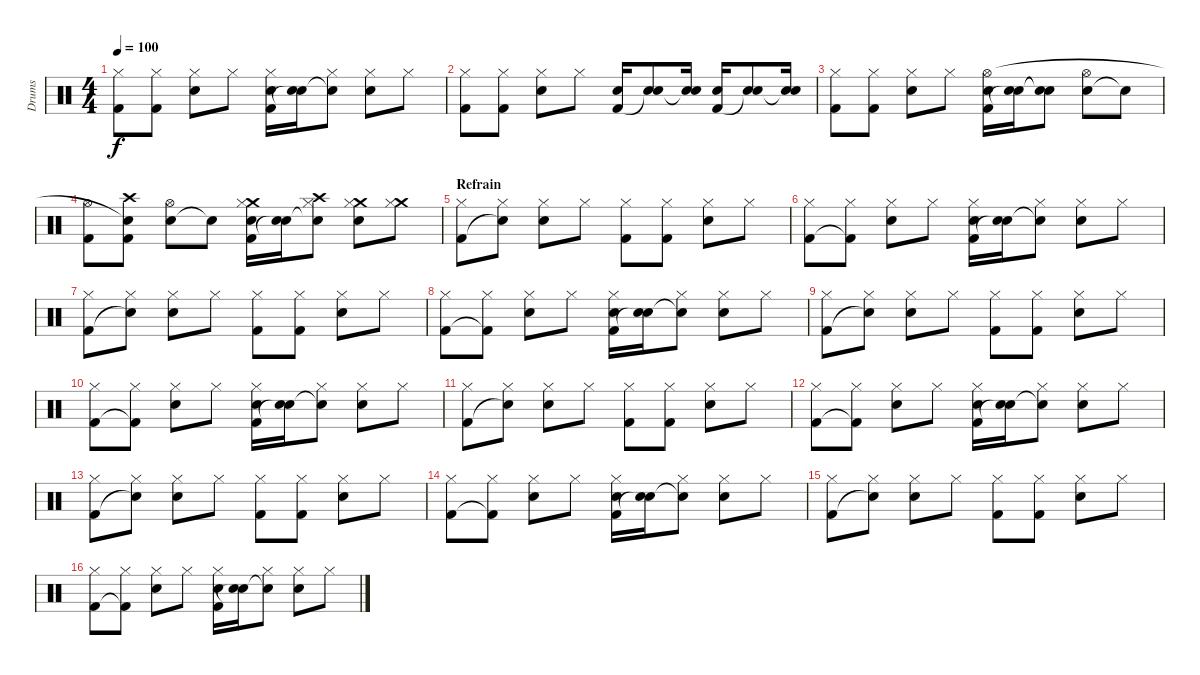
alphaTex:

\track ("Drums" "Drums") {instrument percussion}
\staff {score}
\articulation defaults
\ts (4 4)
\tempo 100
\clef neutral
\ks c
("Kick (hit) 2" "Hi-Hat (closed)").8{dy f} ("Kick (hit) 2" "Hi-Hat (closed)").8 ("Snare (hit) 2" "Hi-Hat (closed)").8 "Hi-Hat (closed)".8 ("Kick (hit) 2" "Snare (hit) 2" "Hi-Hat (closed)").16 ("Snare (hit)"{t} "Snare (hit) 2").16 ("Snare (hit)"{t} "Hi-Hat (closed)").8 ("Snare (hit) 2" "Hi-Hat (closed)").8 "Hi-Hat (closed)".8 |
("Kick (hit) 2" "Hi-Hat (closed)").8 ("Kick (hit) 2" "Hi-Hat (closed)").8 ("Snare (hit) 2" "Hi-Hat (closed)").8 "Hi-Hat (closed)".8 ("Kick (hit) 2" "Snare (hit) 2").16 ("Snare (hit)"{t} "Snare (hit) 2").8 ("Snare (hit)"{t} "Snare (hit) 2").16 ("Kick (hit) 2" "Snare (hit) 2").16 ("Snare (hit)"{t} "Snare (hit) 2").8 ("Snare (hit)"{t} "Snare (hit) 2").16 |
("Kick (hit) 2" "Hi-Hat (closed)").8 ("Kick (hit) 2" "Hi-Hat (closed)").8 ("Snare (hit) 2" "Hi-Hat (closed)").8 "Hi-Hat (closed)".8 ("Kick (hit) 2" "Snare (hit) 2" "Hi-Hat (open)").16 ("Snare (hit)"{t} "Snare (hit) 2").16 ("Snare (hit)"{t} "Snare (hit)"{t}).8 ("Snare (hit) 2" "Hi-Hat (open)").8 "Snare (hit)"{t}.8 |
("Kick (hit) 2" "Hi-Hat (open)").8 ("Kick (hit) 2" "Crash high (hit)" "Snare (hit)"{t}).8 ("Snare (hit) 2" "Hi-Hat (open)").8 "Snare (hit)"{t}.8 ("Kick (hit) 2" "Crash medium (hit)" "Snare (hit) 2" "Hi-Hat (closed)").16 ("Snare (hit)"{t} "Snare (hit) 2").16 ("Snare (hit)"{t} "Crash high (hit)" "Hi-Hat (closed)").8 ("Crash medium (hit)" "Snare (hit) 2" "Hi-Hat (closed)").8 ("Crash medium (hit)" "Hi-Hat (closed)").8 |
\section ("" "Refrain")
("Kick (hit) 2" "Hi-Hat (closed)").8 ("Snare (hit)"{t} "Hi-Hat (closed)").8 ("Snare (hit) 2" "Hi-Hat (closed)").8 "Hi-Hat (closed)".8 ("Kick (hit) 2" "Hi-Hat (closed)").8 ("Kick (hit) 2" "Hi-Hat (closed)").8 ("Snare (hit) 2" "Hi-Hat (closed)").8 "Hi-Hat (closed)".8 |
("Kick (hit) 2" "Hi-Hat (closed)").8 ("Kick (hit) 2"{t} "Hi-Hat (closed)").8 ("Snare (hit) 2" "Hi-Hat (closed)").8 "Hi-Hat (closed)".8 ("Kick (hit) 2" "Snare (hit) 2" "Hi-Hat (closed)").16 ("Snare (hit)"{t} "Snare (hit) 2").16 ("Snare (hit)"{t} "Hi-Hat (closed)").8 ("Snare (hit) 2" "Hi-Hat (closed)").8 "Hi-Hat (closed)".8 |
("Kick (hit) 2" "Hi-Hat (closed)").8 ("Snare (hit)"{t} "Hi-Hat (closed)").8 ("Snare (hit) 2" "Hi-Hat (closed)").8 "Hi-Hat (closed)".8 ("Kick (hit) 2" "Hi-Hat (closed)").8 ("Kick (hit) 2" "Hi-Hat (closed)").8 ("Snare (hit) 2" "Hi-Hat (closed)").8 "Hi-Hat (closed)".8 |
("Kick (hit) 2" "Hi-Hat (closed)").8 ("Kick (hit) 2"{t} "Hi-Hat (closed)").8 ("Snare (hit) 2" "Hi-Hat (closed)").8 "Hi-Hat (closed)".8 ("Kick (hit) 2" "Snare (hit) 2" "Hi-Hat (closed)").16 ("Snare (hit)"{t} "Snare (hit) 2").16 ("Snare (hit)"{t} "Hi-Hat (closed)").8 ("Snare (hit) 2" "Hi-Hat (closed)").8 "Hi-Hat (closed)".8 |
("Kick (hit) 2" "Hi-Hat (closed)").8 ("Snare (hit)"{t} "Hi-Hat (closed)").8 ("Snare (hit) 2" "Hi-Hat (closed)").8 "Hi-Hat (closed)".8 ("Kick (hit) 2" "Hi-Hat (closed)").8 ("Kick (hit) 2" "Hi-Hat (closed)").8 ("Snare (hit) 2" "Hi-Hat (closed)").8 "Hi-Hat (closed)".8 |
("Kick (hit) 2" "Hi-Hat (closed)").8 ("Kick (hit) 2"{t} "Hi-Hat (closed)").8 ("Snare (hit) 2" "Hi-Hat (closed)").8 "Hi-Hat (closed)".8 ("Kick (hit) 2" "Snare (hit) 2" "Hi-Hat (closed)").16 ("Snare (hit)"{t} "Snare (hit) 2").16 ("Snare (hit)"{t} "Hi-Hat (closed)").8 ("Snare (hit) 2" "Hi-Hat (closed)").8 "Hi-Hat (closed)".8 |
("Kick (hit) 2" "Hi-Hat (closed)").8 ("Snare (hit)"{t} "Hi-Hat (closed)").8 ("Snare (hit) 2" "Hi-Hat (closed)").8 "Hi-Hat (closed)".8 ("Kick (hit) 2" "Hi-Hat (closed)").8 ("Kick (hit) 2" "Hi-Hat (closed)").8 ("Snare (hit) 2" "Hi-Hat (closed)").8 "Hi-Hat (closed)".8 |
("Kick (hit) 2" "Hi-Hat (closed)").8 ("Kick (hit) 2"{t} "Hi-Hat (closed)").8 ("Snare (hit) 2" "Hi-Hat (closed)").8 "Hi-Hat (closed)".8 ("Kick (hit) 2" "Snare (hit) 2" "Hi-Hat (closed)").16 ("Snare (hit)"{t} "Snare (hit) 2").16 ("Snare (hit)"{t} "Hi-Hat (closed)").8 ("Snare (hit) 2" "Hi-Hat (closed)").8 "Hi-Hat (closed)".8 |
("Kick (hit) 2" "Hi-Hat (closed)").8 ("Snare (hit)"{t} "Hi-Hat (closed)").8 ("Snare (hit) 2" "Hi-Hat (closed)").8 "Hi-Hat (closed)".8 ("Kick (hit) 2" "Hi-Hat (closed)").8 ("Kick (hit) 2" "Hi-Hat (closed)").8 ("Snare (hit) 2" "Hi-Hat (closed)").8 "Hi-Hat (closed)".8 |
("Kick (hit) 2" "Hi-Hat (closed)").8 ("Kick (hit) 2"{t} "Hi-Hat (closed)").8 ("Snare (hit) 2" "Hi-Hat (closed)").8 "Hi-Hat (closed)".8 ("Kick (hit) 2" "Snare (hit) 2" "Hi-Hat (closed)").16 ("Snare (hit)"{t} "Snare (hit) 2").16 ("Snare (hit)"{t} "Hi-Hat (closed)").8 ("Snare (hit) 2" "Hi-Hat (closed)").8 "Hi-Hat (closed)".8 |
("Kick (hit) 2" "Hi-Hat (closed)").8 ("Snare (hit)"{t} "Hi-Hat (closed)").8 ("Snare (hit) 2" "Hi-Hat (closed)").8 "Hi-Hat (closed)".8 ("Kick (hit) 2" "Hi-Hat (closed)").8 ("Kick (hit) 2" "Hi-Hat (closed)").8 ("Snare (hit) 2" "Hi-Hat (closed)").8 "Hi-Hat (closed)".8 |
("Kick (hit) 2" "Hi-Hat (closed)").8 ("Kick (hit) 2"{t} "Hi-Hat (closed)").8 ("Snare (hit) 2" "Hi-Hat (closed)").8 "Hi-Hat (closed)".8 ("Kick (hit) 2" "Snare (hit) 2" "Hi-Hat (closed)").16 ("Snare (hit)"{t} "Snare (hit) 2").16 ("Snare (hit)"{t} "Hi-Hat (closed)").8 ("Snare (hit) 2" "Hi-Hat (closed)").8 "Hi-Hat (closed)".8
